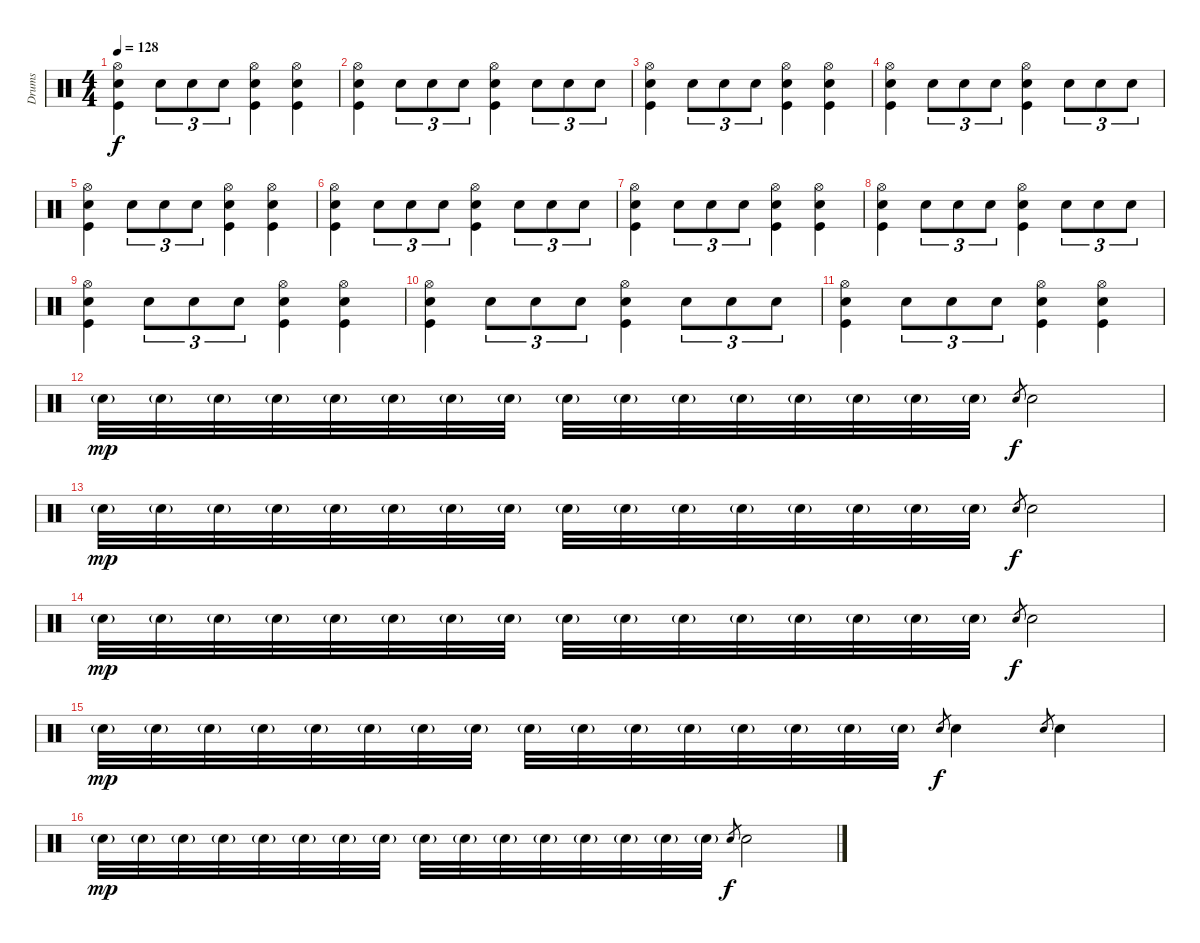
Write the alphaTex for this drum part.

\track ("Drums" "Drums") {instrument percussion}
\staff {score}
\articulation defaults
\ts (4 4)
\tempo 128
\clef neutral
\ks c
("Hi-Hat (open)" "Snare (hit) 2" "Kick (hit)").4{dy f} "Snare (hit) 2".8{tu (3 2)} "Snare (hit) 2".8{tu (3 2)} "Snare (hit) 2".8{tu (3 2)} ("Hi-Hat (open)" "Snare (hit) 2" "Kick (hit)").4 ("Hi-Hat (open)" "Snare (hit) 2" "Kick (hit)").4 |
("Hi-Hat (open)" "Snare (hit) 2" "Kick (hit)").4 "Snare (hit) 2".8{tu (3 2)} "Snare (hit) 2".8{tu (3 2)} "Snare (hit) 2".8{tu (3 2)} ("Hi-Hat (open)" "Snare (hit) 2" "Kick (hit)").4 "Snare (hit) 2".8{tu (3 2)} "Snare (hit) 2".8{tu (3 2)} "Snare (hit) 2".8{tu (3 2)} |
("Hi-Hat (open)" "Snare (hit) 2" "Kick (hit)").4 "Snare (hit) 2".8{tu (3 2)} "Snare (hit) 2".8{tu (3 2)} "Snare (hit) 2".8{tu (3 2)} ("Hi-Hat (open)" "Snare (hit) 2" "Kick (hit)").4 ("Hi-Hat (open)" "Snare (hit) 2" "Kick (hit)").4 |
("Hi-Hat (open)" "Snare (hit) 2" "Kick (hit)").4 "Snare (hit) 2".8{tu (3 2)} "Snare (hit) 2".8{tu (3 2)} "Snare (hit) 2".8{tu (3 2)} ("Hi-Hat (open)" "Snare (hit) 2" "Kick (hit)").4 "Snare (hit) 2".8{tu (3 2)} "Snare (hit) 2".8{tu (3 2)} "Snare (hit) 2".8{tu (3 2)} |
("Hi-Hat (open)" "Snare (hit) 2" "Kick (hit)").4 "Snare (hit) 2".8{tu (3 2)} "Snare (hit) 2".8{tu (3 2)} "Snare (hit) 2".8{tu (3 2)} ("Hi-Hat (open)" "Snare (hit) 2" "Kick (hit)").4 ("Hi-Hat (open)" "Snare (hit) 2" "Kick (hit)").4 |
("Hi-Hat (open)" "Snare (hit) 2" "Kick (hit)").4 "Snare (hit) 2".8{tu (3 2)} "Snare (hit) 2".8{tu (3 2)} "Snare (hit) 2".8{tu (3 2)} ("Hi-Hat (open)" "Snare (hit) 2" "Kick (hit)").4 "Snare (hit) 2".8{tu (3 2)} "Snare (hit) 2".8{tu (3 2)} "Snare (hit) 2".8{tu (3 2)} |
("Hi-Hat (open)" "Snare (hit) 2" "Kick (hit)").4 "Snare (hit) 2".8{tu (3 2)} "Snare (hit) 2".8{tu (3 2)} "Snare (hit) 2".8{tu (3 2)} ("Hi-Hat (open)" "Snare (hit) 2" "Kick (hit)").4 ("Hi-Hat (open)" "Snare (hit) 2" "Kick (hit)").4 |
("Hi-Hat (open)" "Snare (hit) 2" "Kick (hit)").4 "Snare (hit) 2".8{tu (3 2)} "Snare (hit) 2".8{tu (3 2)} "Snare (hit) 2".8{tu (3 2)} ("Hi-Hat (open)" "Snare (hit) 2" "Kick (hit)").4 "Snare (hit) 2".8{tu (3 2)} "Snare (hit) 2".8{tu (3 2)} "Snare (hit) 2".8{tu (3 2)} |
("Hi-Hat (open)" "Snare (hit) 2" "Kick (hit)").4 "Snare (hit) 2".8{tu (3 2)} "Snare (hit) 2".8{tu (3 2)} "Snare (hit) 2".8{tu (3 2)} ("Hi-Hat (open)" "Snare (hit) 2" "Kick (hit)").4 ("Hi-Hat (open)" "Snare (hit) 2" "Kick (hit)").4 |
("Hi-Hat (open)" "Snare (hit) 2" "Kick (hit)").4 "Snare (hit) 2".8{tu (3 2)} "Snare (hit) 2".8{tu (3 2)} "Snare (hit) 2".8{tu (3 2)} ("Hi-Hat (open)" "Snare (hit) 2" "Kick (hit)").4 "Snare (hit) 2".8{tu (3 2)} "Snare (hit) 2".8{tu (3 2)} "Snare (hit) 2".8{tu (3 2)} |
("Hi-Hat (open)" "Snare (hit) 2" "Kick (hit)").4 "Snare (hit) 2".8{tu (3 2)} "Snare (hit) 2".8{tu (3 2)} "Snare (hit) 2".8{tu (3 2)} ("Hi-Hat (open)" "Snare (hit) 2" "Kick (hit)").4 ("Hi-Hat (open)" "Snare (hit) 2" "Kick (hit)").4 |
"Snare (hit) 2"{g}.32{dy mp volume 13} "Snare (hit) 2"{g}.32 "Snare (hit) 2"{g}.32 "Snare (hit) 2"{g}.32 "Snare (hit) 2"{g}.32 "Snare (hit) 2"{g}.32 "Snare (hit) 2"{g}.32 "Snare (hit) 2"{g}.32 "Snare (hit) 2"{g}.32 "Snare (hit) 2"{g}.32 "Snare (hit) 2"{g}.32 "Snare (hit) 2"{g}.32 "Snare (hit) 2"{g}.32 "Snare (hit) 2"{g}.32 "Snare (hit) 2"{g}.32 "Snare (hit) 2"{g}.32 "Snare (hit) 2".8{gr dy f} "Snare (hit) 2".2 |
"Snare (hit) 2"{g}.32{dy mp} "Snare (hit) 2"{g}.32 "Snare (hit) 2"{g}.32 "Snare (hit) 2"{g}.32 "Snare (hit) 2"{g}.32 "Snare (hit) 2"{g}.32 "Snare (hit) 2"{g}.32 "Snare (hit) 2"{g}.32 "Snare (hit) 2"{g}.32 "Snare (hit) 2"{g}.32 "Snare (hit) 2"{g}.32 "Snare (hit) 2"{g}.32 "Snare (hit) 2"{g}.32 "Snare (hit) 2"{g}.32 "Snare (hit) 2"{g}.32 "Snare (hit) 2"{g}.32 "Snare (hit) 2".8{gr dy f} "Snare (hit) 2".2 |
"Snare (hit) 2"{g}.32{dy mp} "Snare (hit) 2"{g}.32 "Snare (hit) 2"{g}.32 "Snare (hit) 2"{g}.32 "Snare (hit) 2"{g}.32 "Snare (hit) 2"{g}.32 "Snare (hit) 2"{g}.32 "Snare (hit) 2"{g}.32 "Snare (hit) 2"{g}.32 "Snare (hit) 2"{g}.32 "Snare (hit) 2"{g}.32 "Snare (hit) 2"{g}.32 "Snare (hit) 2"{g}.32 "Snare (hit) 2"{g}.32 "Snare (hit) 2"{g}.32 "Snare (hit) 2"{g}.32 "Snare (hit) 2".8{gr dy f} "Snare (hit) 2".2 |
"Snare (hit) 2"{g}.32{dy mp} "Snare (hit) 2"{g}.32 "Snare (hit) 2"{g}.32 "Snare (hit) 2"{g}.32 "Snare (hit) 2"{g}.32 "Snare (hit) 2"{g}.32 "Snare (hit) 2"{g}.32 "Snare (hit) 2"{g}.32 "Snare (hit) 2"{g}.32 "Snare (hit) 2"{g}.32 "Snare (hit) 2"{g}.32 "Snare (hit) 2"{g}.32 "Snare (hit) 2"{g}.32 "Snare (hit) 2"{g}.32 "Snare (hit) 2"{g}.32 "Snare (hit) 2"{g}.32 "Snare (hit) 2".8{gr dy f} "Snare (hit) 2".4 "Snare (hit) 2".8{gr} "Snare (hit) 2".4 |
"Snare (hit) 2"{g}.32{dy mp} "Snare (hit) 2"{g}.32 "Snare (hit) 2"{g}.32 "Snare (hit) 2"{g}.32 "Snare (hit) 2"{g}.32 "Snare (hit) 2"{g}.32 "Snare (hit) 2"{g}.32 "Snare (hit) 2"{g}.32 "Snare (hit) 2"{g}.32 "Snare (hit) 2"{g}.32 "Snare (hit) 2"{g}.32 "Snare (hit) 2"{g}.32 "Snare (hit) 2"{g}.32 "Snare (hit) 2"{g}.32 "Snare (hit) 2"{g}.32 "Snare (hit) 2"{g}.32 "Snare (hit) 2".8{gr dy f} "Snare (hit) 2".2
